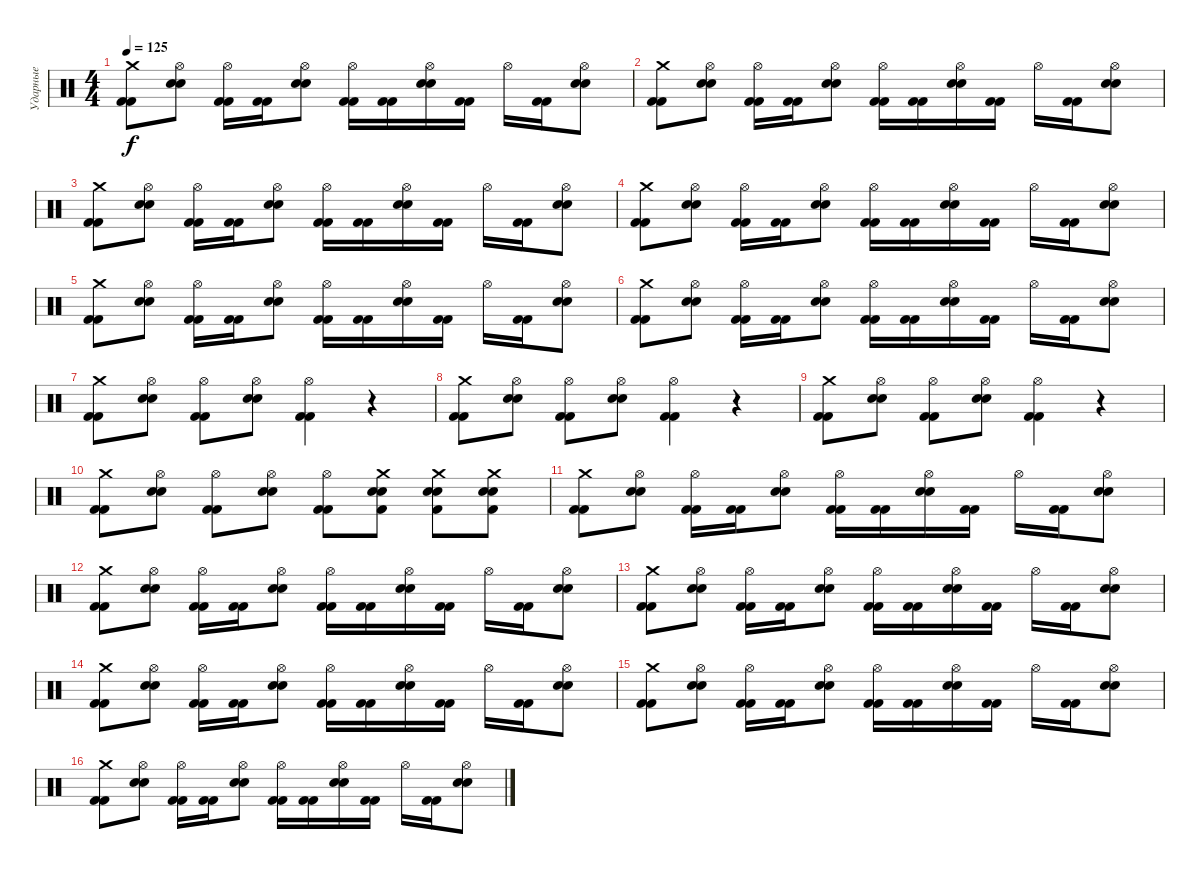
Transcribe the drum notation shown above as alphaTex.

\track ("Ударные" "Ударные") {instrument percussion}
\staff {score}
\articulation defaults
\ts (4 4)
\tempo 125
\clef neutral
\ks c
("Crash medium (hit)" "Kick (hit) 2" "Kick (hit) 2").8{dy f} ("Hi-Hat (open)" "Electric Snare (hit)" "Electric Snare (hit)").8 ("Hi-Hat (open)" "Kick (hit) 2" "Kick (hit) 2").16 ("Kick (hit) 2" "Kick (hit) 2").16 ("Hi-Hat (open)" "Electric Snare (hit)" "Electric Snare (hit)").8 ("Hi-Hat (open)" "Kick (hit) 2" "Kick (hit) 2").16 ("Kick (hit) 2" "Kick (hit) 2").16 ("Hi-Hat (open)" "Electric Snare (hit)" "Electric Snare (hit)").16 ("Kick (hit) 2" "Kick (hit) 2").16 "Hi-Hat (open)".16 ("Kick (hit) 2" "Kick (hit) 2").16 ("Hi-Hat (open)" "Electric Snare (hit)" "Electric Snare (hit)").8 |
("Crash medium (hit)" "Kick (hit) 2" "Kick (hit) 2").8 ("Hi-Hat (open)" "Electric Snare (hit)" "Electric Snare (hit)").8 ("Hi-Hat (open)" "Kick (hit) 2" "Kick (hit) 2").16 ("Kick (hit) 2" "Kick (hit) 2").16 ("Hi-Hat (open)" "Electric Snare (hit)" "Electric Snare (hit)").8 ("Hi-Hat (open)" "Kick (hit) 2" "Kick (hit) 2").16 ("Kick (hit) 2" "Kick (hit) 2").16 ("Hi-Hat (open)" "Electric Snare (hit)" "Electric Snare (hit)").16 ("Kick (hit) 2" "Kick (hit) 2").16 "Hi-Hat (open)".16 ("Kick (hit) 2" "Kick (hit) 2").16 ("Hi-Hat (open)" "Electric Snare (hit)" "Electric Snare (hit)").8 |
("Crash medium (hit)" "Kick (hit) 2" "Kick (hit) 2").8 ("Hi-Hat (open)" "Electric Snare (hit)" "Electric Snare (hit)").8 ("Hi-Hat (open)" "Kick (hit) 2" "Kick (hit) 2").16 ("Kick (hit) 2" "Kick (hit) 2").16 ("Hi-Hat (open)" "Electric Snare (hit)" "Electric Snare (hit)").8 ("Hi-Hat (open)" "Kick (hit) 2" "Kick (hit) 2").16 ("Kick (hit) 2" "Kick (hit) 2").16 ("Hi-Hat (open)" "Electric Snare (hit)" "Electric Snare (hit)").16 ("Kick (hit) 2" "Kick (hit) 2").16 "Hi-Hat (open)".16 ("Kick (hit) 2" "Kick (hit) 2").16 ("Hi-Hat (open)" "Electric Snare (hit)" "Electric Snare (hit)").8 |
("Crash medium (hit)" "Kick (hit) 2" "Kick (hit) 2").8 ("Hi-Hat (open)" "Electric Snare (hit)" "Electric Snare (hit)").8 ("Hi-Hat (open)" "Kick (hit) 2" "Kick (hit) 2").16 ("Kick (hit) 2" "Kick (hit) 2").16 ("Hi-Hat (open)" "Electric Snare (hit)" "Electric Snare (hit)").8 ("Hi-Hat (open)" "Kick (hit) 2" "Kick (hit) 2").16 ("Kick (hit) 2" "Kick (hit) 2").16 ("Hi-Hat (open)" "Electric Snare (hit)" "Electric Snare (hit)").16 ("Kick (hit) 2" "Kick (hit) 2").16 "Hi-Hat (open)".16 ("Kick (hit) 2" "Kick (hit) 2").16 ("Hi-Hat (open)" "Electric Snare (hit)" "Electric Snare (hit)").8 |
("Crash medium (hit)" "Kick (hit) 2" "Kick (hit) 2").8 ("Hi-Hat (open)" "Electric Snare (hit)" "Electric Snare (hit)").8 ("Hi-Hat (open)" "Kick (hit) 2" "Kick (hit) 2").16 ("Kick (hit) 2" "Kick (hit) 2").16 ("Hi-Hat (open)" "Electric Snare (hit)" "Electric Snare (hit)").8 ("Hi-Hat (open)" "Kick (hit) 2" "Kick (hit) 2").16 ("Kick (hit) 2" "Kick (hit) 2").16 ("Hi-Hat (open)" "Electric Snare (hit)" "Electric Snare (hit)").16 ("Kick (hit) 2" "Kick (hit) 2").16 "Hi-Hat (open)".16 ("Kick (hit) 2" "Kick (hit) 2").16 ("Hi-Hat (open)" "Electric Snare (hit)" "Electric Snare (hit)").8 |
("Crash medium (hit)" "Kick (hit) 2" "Kick (hit) 2").8 ("Hi-Hat (open)" "Electric Snare (hit)" "Electric Snare (hit)").8 ("Hi-Hat (open)" "Kick (hit) 2" "Kick (hit) 2").16 ("Kick (hit) 2" "Kick (hit) 2").16 ("Hi-Hat (open)" "Electric Snare (hit)" "Electric Snare (hit)").8 ("Hi-Hat (open)" "Kick (hit) 2" "Kick (hit) 2").16 ("Kick (hit) 2" "Kick (hit) 2").16 ("Hi-Hat (open)" "Electric Snare (hit)" "Electric Snare (hit)").16 ("Kick (hit) 2" "Kick (hit) 2").16 "Hi-Hat (open)".16 ("Kick (hit) 2" "Kick (hit) 2").16 ("Hi-Hat (open)" "Electric Snare (hit)" "Electric Snare (hit)").8 |
("Crash medium (hit)" "Kick (hit) 2" "Kick (hit) 2").8 ("Hi-Hat (open)" "Electric Snare (hit)" "Electric Snare (hit)").8 ("Hi-Hat (open)" "Kick (hit) 2" "Kick (hit) 2").8 ("Hi-Hat (open)" "Electric Snare (hit)" "Electric Snare (hit)").8 ("Hi-Hat (open)" "Kick (hit) 2" "Kick (hit) 2").4 r.4 |
("Crash medium (hit)" "Kick (hit) 2" "Kick (hit) 2").8 ("Hi-Hat (open)" "Electric Snare (hit)" "Electric Snare (hit)").8 ("Hi-Hat (open)" "Kick (hit) 2" "Kick (hit) 2").8 ("Hi-Hat (open)" "Electric Snare (hit)" "Electric Snare (hit)").8 ("Hi-Hat (open)" "Kick (hit) 2" "Kick (hit) 2").4 r.4 |
("Crash medium (hit)" "Kick (hit) 2" "Kick (hit) 2").8 ("Hi-Hat (open)" "Electric Snare (hit)" "Electric Snare (hit)").8 ("Hi-Hat (open)" "Kick (hit) 2" "Kick (hit) 2").8 ("Hi-Hat (open)" "Electric Snare (hit)" "Electric Snare (hit)").8 ("Hi-Hat (open)" "Kick (hit) 2" "Kick (hit) 2").4 r.4 |
("Crash medium (hit)" "Kick (hit) 2" "Kick (hit) 2").8 ("Hi-Hat (open)" "Electric Snare (hit)" "Electric Snare (hit)").8 ("Hi-Hat (open)" "Kick (hit) 2" "Kick (hit) 2").8 ("Hi-Hat (open)" "Electric Snare (hit)" "Electric Snare (hit)").8 ("Hi-Hat (open)" "Kick (hit) 2" "Kick (hit) 2").8 ("Crash medium (hit)" "Electric Snare (hit)" "Electric Snare (hit)" "Kick (hit) 2").8 ("Crash medium (hit)" "Electric Snare (hit)" "Electric Snare (hit)" "Kick (hit) 2").8 ("Crash medium (hit)" "Electric Snare (hit)" "Electric Snare (hit)" "Kick (hit) 2").8 |
("Crash medium (hit)" "Kick (hit) 2" "Kick (hit) 2").8 ("Hi-Hat (open)" "Electric Snare (hit)" "Electric Snare (hit)").8 ("Hi-Hat (open)" "Kick (hit) 2" "Kick (hit) 2").16 ("Kick (hit) 2" "Kick (hit) 2").16 ("Hi-Hat (open)" "Electric Snare (hit)" "Electric Snare (hit)").8 ("Hi-Hat (open)" "Kick (hit) 2" "Kick (hit) 2").16 ("Kick (hit) 2" "Kick (hit) 2").16 ("Hi-Hat (open)" "Electric Snare (hit)" "Electric Snare (hit)").16 ("Kick (hit) 2" "Kick (hit) 2").16 "Hi-Hat (open)".16 ("Kick (hit) 2" "Kick (hit) 2").16 ("Hi-Hat (open)" "Electric Snare (hit)" "Electric Snare (hit)").8 |
("Crash medium (hit)" "Kick (hit) 2" "Kick (hit) 2").8 ("Hi-Hat (open)" "Electric Snare (hit)" "Electric Snare (hit)").8 ("Hi-Hat (open)" "Kick (hit) 2" "Kick (hit) 2").16 ("Kick (hit) 2" "Kick (hit) 2").16 ("Hi-Hat (open)" "Electric Snare (hit)" "Electric Snare (hit)").8 ("Hi-Hat (open)" "Kick (hit) 2" "Kick (hit) 2").16 ("Kick (hit) 2" "Kick (hit) 2").16 ("Hi-Hat (open)" "Electric Snare (hit)" "Electric Snare (hit)").16 ("Kick (hit) 2" "Kick (hit) 2").16 "Hi-Hat (open)".16 ("Kick (hit) 2" "Kick (hit) 2").16 ("Hi-Hat (open)" "Electric Snare (hit)" "Electric Snare (hit)").8 |
("Crash medium (hit)" "Kick (hit) 2" "Kick (hit) 2").8 ("Hi-Hat (open)" "Electric Snare (hit)" "Electric Snare (hit)").8 ("Hi-Hat (open)" "Kick (hit) 2" "Kick (hit) 2").16 ("Kick (hit) 2" "Kick (hit) 2").16 ("Hi-Hat (open)" "Electric Snare (hit)" "Electric Snare (hit)").8 ("Hi-Hat (open)" "Kick (hit) 2" "Kick (hit) 2").16 ("Kick (hit) 2" "Kick (hit) 2").16 ("Hi-Hat (open)" "Electric Snare (hit)" "Electric Snare (hit)").16 ("Kick (hit) 2" "Kick (hit) 2").16 "Hi-Hat (open)".16 ("Kick (hit) 2" "Kick (hit) 2").16 ("Hi-Hat (open)" "Electric Snare (hit)" "Electric Snare (hit)").8 |
("Crash medium (hit)" "Kick (hit) 2" "Kick (hit) 2").8 ("Hi-Hat (open)" "Electric Snare (hit)" "Electric Snare (hit)").8 ("Hi-Hat (open)" "Kick (hit) 2" "Kick (hit) 2").16 ("Kick (hit) 2" "Kick (hit) 2").16 ("Hi-Hat (open)" "Electric Snare (hit)" "Electric Snare (hit)").8 ("Hi-Hat (open)" "Kick (hit) 2" "Kick (hit) 2").16 ("Kick (hit) 2" "Kick (hit) 2").16 ("Hi-Hat (open)" "Electric Snare (hit)" "Electric Snare (hit)").16 ("Kick (hit) 2" "Kick (hit) 2").16 "Hi-Hat (open)".16 ("Kick (hit) 2" "Kick (hit) 2").16 ("Hi-Hat (open)" "Electric Snare (hit)" "Electric Snare (hit)").8 |
("Crash medium (hit)" "Kick (hit) 2" "Kick (hit) 2").8 ("Hi-Hat (open)" "Electric Snare (hit)" "Electric Snare (hit)").8 ("Hi-Hat (open)" "Kick (hit) 2" "Kick (hit) 2").16 ("Kick (hit) 2" "Kick (hit) 2").16 ("Hi-Hat (open)" "Electric Snare (hit)" "Electric Snare (hit)").8 ("Hi-Hat (open)" "Kick (hit) 2" "Kick (hit) 2").16 ("Kick (hit) 2" "Kick (hit) 2").16 ("Hi-Hat (open)" "Electric Snare (hit)" "Electric Snare (hit)").16 ("Kick (hit) 2" "Kick (hit) 2").16 "Hi-Hat (open)".16 ("Kick (hit) 2" "Kick (hit) 2").16 ("Hi-Hat (open)" "Electric Snare (hit)" "Electric Snare (hit)").8 |
("Crash medium (hit)" "Kick (hit) 2" "Kick (hit) 2").8 ("Hi-Hat (open)" "Electric Snare (hit)" "Electric Snare (hit)").8 ("Hi-Hat (open)" "Kick (hit) 2" "Kick (hit) 2").16 ("Kick (hit) 2" "Kick (hit) 2").16 ("Hi-Hat (open)" "Electric Snare (hit)" "Electric Snare (hit)").8 ("Hi-Hat (open)" "Kick (hit) 2" "Kick (hit) 2").16 ("Kick (hit) 2" "Kick (hit) 2").16 ("Hi-Hat (open)" "Electric Snare (hit)" "Electric Snare (hit)").16 ("Kick (hit) 2" "Kick (hit) 2").16 "Hi-Hat (open)".16 ("Kick (hit) 2" "Kick (hit) 2").16 ("Hi-Hat (open)" "Electric Snare (hit)" "Electric Snare (hit)").8
